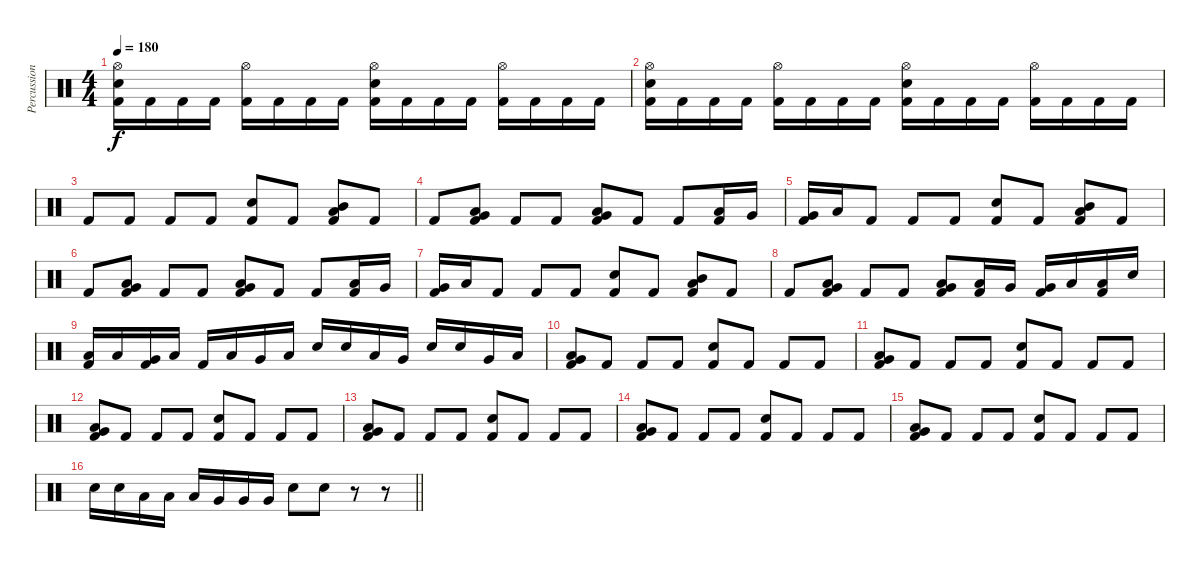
\track ("Percussion" "Percussion") {instrument percussion}
\staff {score}
\articulation defaults
\ts (4 4)
\tempo 180
\clef neutral
\ks c
("Hi-Hat (open)" "Electric Snare (hit)" "Kick (hit) 2").16{dy f} "Kick (hit) 2".16 "Kick (hit) 2".16 "Kick (hit) 2".16 ("Hi-Hat (open)" "Kick (hit) 2").16 "Kick (hit) 2".16 "Kick (hit) 2".16 "Kick (hit) 2".16 ("Hi-Hat (open)" "Electric Snare (hit)" "Kick (hit) 2").16 "Kick (hit) 2".16 "Kick (hit) 2".16 "Kick (hit) 2".16 ("Hi-Hat (open)" "Kick (hit) 2").16 "Kick (hit) 2".16 "Kick (hit) 2".16 "Kick (hit) 2".16 |
("Hi-Hat (open)" "Electric Snare (hit)" "Kick (hit) 2").16 "Kick (hit) 2".16 "Kick (hit) 2".16 "Kick (hit) 2".16 ("Hi-Hat (open)" "Kick (hit) 2").16 "Kick (hit) 2".16 "Kick (hit) 2".16 "Kick (hit) 2".16 ("Hi-Hat (open)" "Electric Snare (hit)" "Kick (hit) 2").16 "Kick (hit) 2".16 "Kick (hit) 2".16 "Kick (hit) 2".16 ("Hi-Hat (open)" "Kick (hit) 2").16 "Kick (hit) 2".16 "Kick (hit) 2".16 "Kick (hit) 2".16 |
"Kick (hit) 2".8 "Kick (hit) 2".8 "Kick (hit) 2".8 "Kick (hit) 2".8 ("Electric Snare (hit)" "Kick (hit) 2").8 "Kick (hit) 2".8 ("Mid Tom (hit)" "Low Tom (hit)" "Kick (hit) 2").8 "Kick (hit) 2".8 |
"Kick (hit) 2".8 ("Low Tom (hit)" "Very Low Tom (hit)" "Kick (hit) 2").8 "Kick (hit) 2".8 "Kick (hit) 2".8 ("Very Low Tom (hit)" "Low Floor Tom (hit)" "Kick (hit) 2").8 "Kick (hit) 2".8 "Kick (hit) 2".8 ("Low Tom (hit)" "Kick (hit) 2").16 "Very Low Tom (hit)".16 |
("Very Low Tom (hit)" "Kick (hit) 2").16 "Low Floor Tom (hit)".16 "Kick (hit) 2".8 "Kick (hit) 2".8 "Kick (hit) 2".8 ("Electric Snare (hit)" "Kick (hit) 2").8 "Kick (hit) 2".8 ("Mid Tom (hit)" "Low Tom (hit)" "Kick (hit) 2").8 "Kick (hit) 2".8 |
"Kick (hit) 2".8 ("Low Tom (hit)" "Very Low Tom (hit)" "Kick (hit) 2").8 "Kick (hit) 2".8 "Kick (hit) 2".8 ("Very Low Tom (hit)" "Low Floor Tom (hit)" "Kick (hit) 2").8 "Kick (hit) 2".8 "Kick (hit) 2".8 ("Low Tom (hit)" "Kick (hit) 2").16 "Very Low Tom (hit)".16 |
("Very Low Tom (hit)" "Kick (hit) 2").16 "Low Floor Tom (hit)".16 "Kick (hit) 2".8 "Kick (hit) 2".8 "Kick (hit) 2".8 ("Electric Snare (hit)" "Kick (hit) 2").8 "Kick (hit) 2".8 ("Mid Tom (hit)" "Low Tom (hit)" "Kick (hit) 2").8 "Kick (hit) 2".8 |
"Kick (hit) 2".8 ("Low Tom (hit)" "Very Low Tom (hit)" "Kick (hit) 2").8 "Kick (hit) 2".8 "Kick (hit) 2".8 ("Very Low Tom (hit)" "Low Floor Tom (hit)" "Kick (hit) 2").8 ("Low Tom (hit)" "Kick (hit) 2").16 "Very Low Tom (hit)".16 ("Very Low Tom (hit)" "Kick (hit) 2").16 "Low Floor Tom (hit)".16 ("Low Tom (hit)" "Kick (hit) 2").16 "Electric Snare (hit)".16 |
("Low Tom (hit)" "Kick (hit) 2").16 "Low Floor Tom (hit)".16 ("Very Low Tom (hit)" "Kick (hit) 2").16 "Low Floor Tom (hit)".16 "Kick (hit) 2".16 "Low Tom (hit)".16 "Very Low Tom (hit)".16 "Low Floor Tom (hit)".16 "Electric Snare (hit)".16 "Electric Snare (hit)".16 "Low Tom (hit)".16 "Very Low Tom (hit)".16 "Electric Snare (hit)".16 "Electric Snare (hit)".16 "Very Low Tom (hit)".16 "Low Floor Tom (hit)".16 |
("Very Low Tom (hit)" "Low Floor Tom (hit)" "Kick (hit) 2").8 "Kick (hit) 2".8 "Kick (hit) 2".8 "Kick (hit) 2".8 ("Electric Snare (hit)" "Kick (hit) 2").8 "Kick (hit) 2".8 "Kick (hit) 2".8 "Kick (hit) 2".8 |
("Very Low Tom (hit)" "Low Floor Tom (hit)" "Kick (hit) 2").8 "Kick (hit) 2".8 "Kick (hit) 2".8 "Kick (hit) 2".8 ("Electric Snare (hit)" "Kick (hit) 2").8 "Kick (hit) 2".8 "Kick (hit) 2".8 "Kick (hit) 2".8 |
("Very Low Tom (hit)" "Low Floor Tom (hit)" "Kick (hit) 2").8 "Kick (hit) 2".8 "Kick (hit) 2".8 "Kick (hit) 2".8 ("Electric Snare (hit)" "Kick (hit) 2").8 "Kick (hit) 2".8 "Kick (hit) 2".8 "Kick (hit) 2".8 |
("Very Low Tom (hit)" "Low Floor Tom (hit)" "Kick (hit) 2").8 "Kick (hit) 2".8 "Kick (hit) 2".8 "Kick (hit) 2".8 ("Electric Snare (hit)" "Kick (hit) 2").8 "Kick (hit) 2".8 "Kick (hit) 2".8 "Kick (hit) 2".8 |
("Very Low Tom (hit)" "Low Floor Tom (hit)" "Kick (hit) 2").8 "Kick (hit) 2".8 "Kick (hit) 2".8 "Kick (hit) 2".8 ("Electric Snare (hit)" "Kick (hit) 2").8 "Kick (hit) 2".8 "Kick (hit) 2".8 "Kick (hit) 2".8 |
("Very Low Tom (hit)" "Low Floor Tom (hit)" "Kick (hit) 2").8 "Kick (hit) 2".8 "Kick (hit) 2".8 "Kick (hit) 2".8 ("Electric Snare (hit)" "Kick (hit) 2").8 "Kick (hit) 2".8 "Kick (hit) 2".8 "Kick (hit) 2".8 |
\barLineRight lightlight "Electric Snare (hit)".16 "Electric Snare (hit)".16 "Low Tom (hit)".16 "Low Tom (hit)".16 "Low Tom (hit)".16 "Very Low Tom (hit)".16 "Very Low Tom (hit)".16 "Very Low Tom (hit)".16 "Electric Snare (hit)".8 "Electric Snare (hit)".8
r.8 r.8
